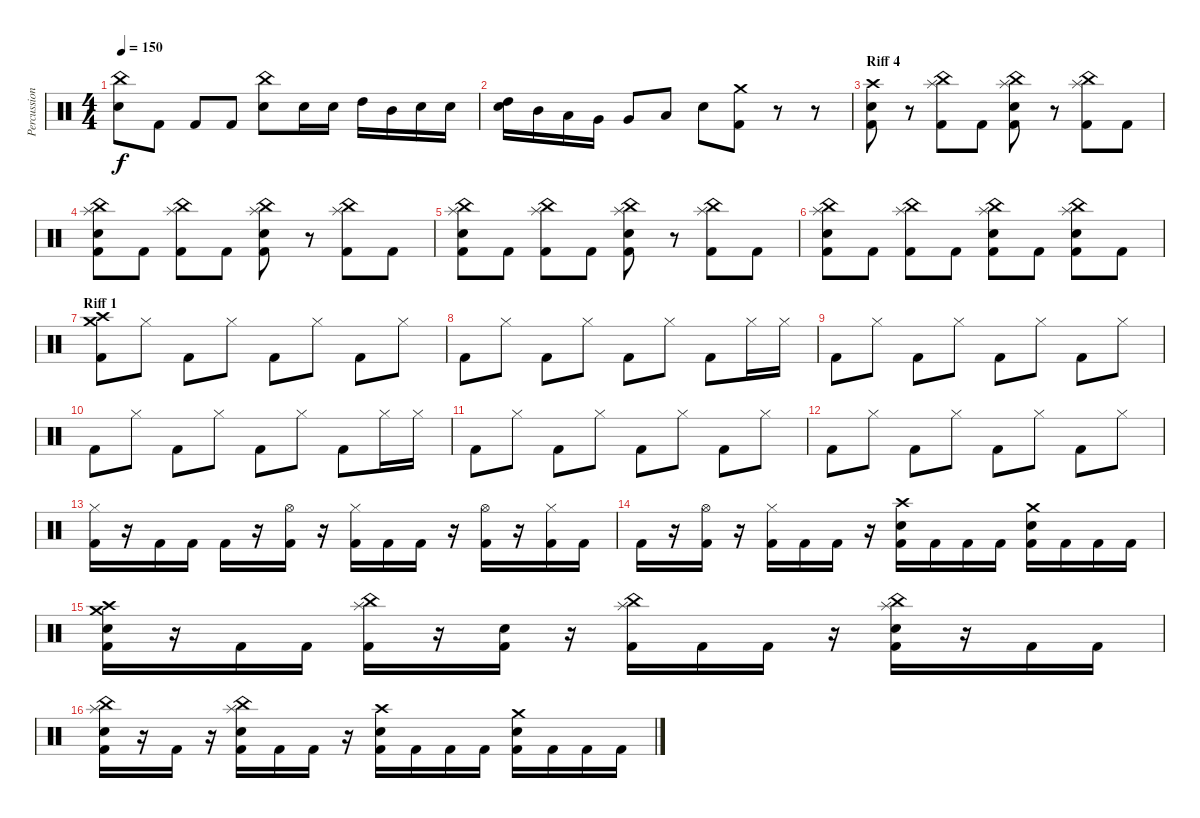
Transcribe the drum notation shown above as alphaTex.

\track ("Percussion" "Percussion") {instrument percussion}
\staff {score}
\articulation defaults
\ts (4 4)
\tempo 150
\clef neutral
\ks c
("China (hit)" "Electric Snare (hit)").8{dy f} "Kick (hit) 2".8 "Kick (hit) 2".8 "Kick (hit) 2".8 ("China (hit)" "Electric Snare (hit)").8 "Electric Snare (hit)".16 "Electric Snare (hit)".16 "High Tom (hit)".16 "Mid Tom (hit)".16 "Electric Snare (hit)".16 "Electric Snare (hit)".16 |
("High Tom (hit)" "Electric Snare (hit)").16 "Mid Tom (hit)".16 "Low Tom (hit)".16 "Very Low Tom (hit)".16 "Very Low Tom (hit)".8 "Low Floor Tom (hit)".8 "Electric Snare (hit)".8 ("Crash medium (hit)" "Kick (hit) 2").8 r.8 r.8 |
\section ("" "Riff 4")
("Crash high (hit)" "Electric Snare (hit)" "Kick (hit) 2").8 r.8 ("Splash (hit)" "China (hit)" "Kick (hit) 2").8 "Kick (hit) 2".8 ("Splash (hit)" "China (hit)" "Electric Snare (hit)" "Kick (hit) 2").8 r.8 ("Splash (hit)" "China (hit)" "Kick (hit) 2").8 "Kick (hit) 2".8 |
("Splash (hit)" "China (hit)" "Electric Snare (hit)" "Kick (hit) 2").8 "Kick (hit) 2".8 ("Splash (hit)" "China (hit)" "Kick (hit) 2").8 "Kick (hit) 2".8 ("Splash (hit)" "China (hit)" "Electric Snare (hit)" "Kick (hit) 2").8 r.8 ("Splash (hit)" "China (hit)" "Kick (hit) 2").8 "Kick (hit) 2".8 |
("Splash (hit)" "China (hit)" "Electric Snare (hit)" "Kick (hit) 2").8 "Kick (hit) 2".8 ("Splash (hit)" "China (hit)" "Kick (hit) 2").8 "Kick (hit) 2".8 ("Splash (hit)" "China (hit)" "Electric Snare (hit)" "Kick (hit) 2").8 r.8 ("Splash (hit)" "China (hit)" "Kick (hit) 2").8 "Kick (hit) 2".8 |
("Splash (hit)" "China (hit)" "Electric Snare (hit)" "Kick (hit) 2").8 "Kick (hit) 2".8 ("Splash (hit)" "China (hit)" "Kick (hit) 2").8 "Kick (hit) 2".8 ("Splash (hit)" "China (hit)" "Electric Snare (hit)" "Kick (hit) 2").8 "Kick (hit) 2".8 ("Splash (hit)" "China (hit)" "Electric Snare (hit)" "Kick (hit) 2").8 "Kick (hit) 2".8 |
\section ("" "Riff 1")
("Crash medium (hit)" "Crash high (hit)" "Kick (hit) 2").8 "Hi-Hat (closed)".8 "Kick (hit) 2".8 "Hi-Hat (closed)".8 "Kick (hit) 2".8 "Hi-Hat (closed)".8 "Kick (hit) 2".8 "Hi-Hat (closed)".8 |
"Kick (hit) 2".8 "Hi-Hat (closed)".8 "Kick (hit) 2".8 "Hi-Hat (closed)".8 "Kick (hit) 2".8 "Hi-Hat (closed)".8 "Kick (hit) 2".8 "Hi-Hat (closed)".16 "Hi-Hat (closed)".16 |
"Kick (hit) 2".8 "Hi-Hat (closed)".8 "Kick (hit) 2".8 "Hi-Hat (closed)".8 "Kick (hit) 2".8 "Hi-Hat (closed)".8 "Kick (hit) 2".8 "Hi-Hat (closed)".8 |
"Kick (hit) 2".8 "Hi-Hat (closed)".8 "Kick (hit) 2".8 "Hi-Hat (closed)".8 "Kick (hit) 2".8 "Hi-Hat (closed)".8 "Kick (hit) 2".8 "Hi-Hat (closed)".16 "Hi-Hat (closed)".16 |
"Kick (hit) 2".8 "Hi-Hat (closed)".8 "Kick (hit) 2".8 "Hi-Hat (closed)".8 "Kick (hit) 2".8 "Hi-Hat (closed)".8 "Kick (hit) 2".8 "Hi-Hat (closed)".8 |
"Kick (hit) 2".8 "Hi-Hat (closed)".8 "Kick (hit) 2".8 "Hi-Hat (closed)".8 "Kick (hit) 2".8 "Hi-Hat (closed)".8 "Kick (hit) 2".8 "Hi-Hat (closed)".8 |
("Hi-Hat (closed)" "Kick (hit) 2").16 r.16 "Kick (hit) 2".16 "Kick (hit) 2".16 "Kick (hit) 2".16 r.16 ("Hi-Hat (open)" "Kick (hit) 2").16 r.16 ("Hi-Hat (closed)" "Kick (hit) 2").16 "Kick (hit) 2".16 "Kick (hit) 2".16 r.16 ("Hi-Hat (open)" "Kick (hit) 2").16 r.16 ("Hi-Hat (closed)" "Kick (hit) 2").16 "Kick (hit) 2".16 |
"Kick (hit) 2".16 r.16 ("Hi-Hat (open)" "Kick (hit) 2").16 r.16 ("Hi-Hat (closed)" "Kick (hit) 2").16 "Kick (hit) 2".16 "Kick (hit) 2".16 r.16 ("Crash high (hit)" "Electric Snare (hit)" "Kick (hit) 2").16 "Kick (hit) 2".16 "Kick (hit) 2".16 "Kick (hit) 2".16 ("Crash medium (hit)" "Electric Snare (hit)" "Kick (hit) 2").16 "Kick (hit) 2".16 "Kick (hit) 2".16 "Kick (hit) 2".16 |
("Crash medium (hit)" "Crash high (hit)" "Electric Snare (hit)" "Kick (hit) 2").16 r.16 "Kick (hit) 2".16 "Kick (hit) 2".16 ("Splash (hit)" "China (hit)" "Kick (hit) 2").16 r.16 ("Electric Snare (hit)" "Kick (hit) 2").16 r.16 ("Splash (hit)" "China (hit)" "Kick (hit) 2").16 "Kick (hit) 2".16 "Kick (hit) 2".16 r.16 ("Splash (hit)" "China (hit)" "Electric Snare (hit)" "Kick (hit) 2").16 r.16 "Kick (hit) 2".16 "Kick (hit) 2".16 |
("Splash (hit)" "China (hit)" "Electric Snare (hit)" "Kick (hit) 2").16 r.16 "Kick (hit) 2".16 r.16 ("Splash (hit)" "China (hit)" "Electric Snare (hit)" "Kick (hit) 2").16 "Kick (hit) 2".16 "Kick (hit) 2".16 r.16 ("Crash high (hit)" "Electric Snare (hit)" "Kick (hit) 2").16 "Kick (hit) 2".16 "Kick (hit) 2".16 "Kick (hit) 2".16 ("Crash medium (hit)" "Electric Snare (hit)" "Kick (hit) 2").16 "Kick (hit) 2".16 "Kick (hit) 2".16 "Kick (hit) 2".16
